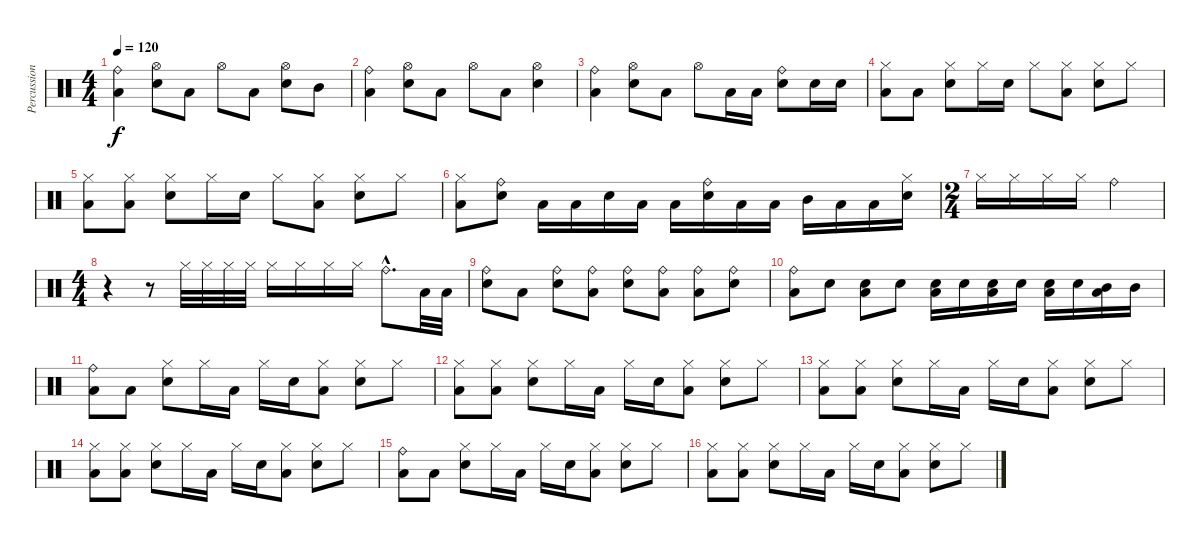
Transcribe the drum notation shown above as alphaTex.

\track ("Percussion" "Percussion") {instrument percussion}
\staff {score}
\articulation defaults
\ts (4 4)
\tempo 120
\clef neutral
\ks c
("Ride (bell)" "Low Floor Tom (hit)").4{dy f} ("Hi-Hat (open)" "Snare (hit) 2").8 "Low Floor Tom (hit)".8 "Hi-Hat (open)".8 "Low Floor Tom (hit)".8 ("Hi-Hat (open)" "Snare (hit) 2").8 "Mid Tom (hit)".8 |
("Ride (bell)" "Low Floor Tom (hit)").4 ("Hi-Hat (open)" "Snare (hit) 2").8 "Low Floor Tom (hit)".8 "Hi-Hat (open)".8 "Low Floor Tom (hit)".8 ("Hi-Hat (open)" "Snare (hit) 2").4 |
("Ride (bell)" "Low Floor Tom (hit)").4 ("Hi-Hat (open)" "Snare (hit) 2").8 "Low Floor Tom (hit)".8 "Hi-Hat (open)".8 "Low Floor Tom (hit)".16 "Low Floor Tom (hit)".16 ("Ride (bell)" "Snare (hit) 2").8 "Snare (hit) 2".16 "Snare (hit) 2".16 |
("Hi-Hat (closed)" "Low Floor Tom (hit)").8 "Low Floor Tom (hit)".8 ("Hi-Hat (closed)" "Snare (hit) 2").8 "Hi-Hat (closed)".16 "Snare (hit) 2".16 "Hi-Hat (closed)".8 ("Hi-Hat (closed)" "Low Floor Tom (hit)").8 ("Hi-Hat (closed)" "Snare (hit) 2").8 "Hi-Hat (closed)".8 |
("Hi-Hat (closed)" "Low Floor Tom (hit)").8 ("Hi-Hat (closed)" "Low Floor Tom (hit)").8 ("Hi-Hat (closed)" "Snare (hit) 2").8 "Hi-Hat (closed)".16 "Snare (hit) 2".16 "Hi-Hat (closed)".8 ("Hi-Hat (closed)" "Low Floor Tom (hit)").8 ("Hi-Hat (closed)" "Snare (hit) 2").8 "Hi-Hat (closed)".8 |
("Hi-Hat (closed)" "Low Floor Tom (hit)").8 ("Ride (bell)" "Snare (hit) 2").8 "Low Floor Tom (hit)".16 "Low Tom (hit)".16 "Snare (hit) 2".16 "Low Tom (hit)".16 "Low Floor Tom (hit)".16 ("Ride (bell)" "Snare (hit) 2").16 "Low Floor Tom (hit)".16 "Low Tom (hit)".16 "Mid Tom (hit)".16 "Low Tom (hit)".16 "Low Floor Tom (hit)".16 ("Hi-Hat (closed)" "Snare (hit) 2").16 |
\ts (2 4)
"Hi-Hat (closed)".16 "Hi-Hat (closed)".16 "Hi-Hat (closed)".16 "Hi-Hat (closed)".16 "Ride (bell)".4 |
\ts (4 4)
r.4 r.8 "Hi-Hat (closed)".32 "Hi-Hat (closed)".32 "Hi-Hat (closed)".32 "Hi-Hat (closed)".32 "Hi-Hat (closed)".16 "Hi-Hat (closed)".16 "Hi-Hat (closed)".16 "Hi-Hat (closed)".16 "Ride (bell)"{hac}.8{d} "Low Floor Tom (hit)".32 "Low Floor Tom (hit)".32 |
("Ride (bell)" "Snare (hit) 2").8 "Low Floor Tom (hit)".8 ("Ride (bell)" "Snare (hit) 2").8 ("Ride (bell)" "Low Floor Tom (hit)").8 ("Ride (bell)" "Snare (hit) 2").8 ("Ride (bell)" "Low Floor Tom (hit)").8 ("Ride (bell)" "Low Floor Tom (hit)").8 ("Ride (bell)" "Snare (hit) 2").8 |
("Ride (bell)" "Low Floor Tom (hit)").8 "Snare (hit) 2".8 ("Snare (hit) 2" "Low Floor Tom (hit)").8 "Snare (hit) 2".8 ("Snare (hit) 2" "Low Floor Tom (hit)").16 "Snare (hit) 2".16 ("Snare (hit) 2" "Low Floor Tom (hit)").16 "Snare (hit) 2".16 ("Snare (hit) 2" "Low Floor Tom (hit)").16 "Snare (hit) 2".16 ("Mid Tom (hit)" "Low Floor Tom (hit)").16 "Mid Tom (hit)".16 |
("Ride (bell)" "Low Floor Tom (hit)").8 "Low Floor Tom (hit)".8 ("Hi-Hat (closed)" "Snare (hit) 2").8 "Hi-Hat (closed)".16 "Low Floor Tom (hit)".16 "Hi-Hat (closed)".16 "Snare (hit) 2".16 ("Hi-Hat (closed)" "Low Floor Tom (hit)").8 ("Hi-Hat (closed)" "Snare (hit) 2").8 "Hi-Hat (closed)".8 |
("Hi-Hat (closed)" "Low Floor Tom (hit)").8 ("Hi-Hat (closed)" "Low Floor Tom (hit)").8 ("Hi-Hat (closed)" "Snare (hit) 2").8 "Hi-Hat (closed)".16 "Low Floor Tom (hit)".16 "Hi-Hat (closed)".16 "Snare (hit) 2".16 ("Hi-Hat (closed)" "Low Floor Tom (hit)").8 ("Hi-Hat (closed)" "Snare (hit) 2").8 "Hi-Hat (closed)".8 |
("Hi-Hat (closed)" "Low Floor Tom (hit)").8 ("Hi-Hat (closed)" "Low Floor Tom (hit)").8 ("Hi-Hat (closed)" "Snare (hit) 2").8 "Hi-Hat (closed)".16 "Low Floor Tom (hit)".16 "Hi-Hat (closed)".16 "Snare (hit) 2".16 ("Hi-Hat (closed)" "Low Floor Tom (hit)").8 ("Hi-Hat (closed)" "Snare (hit) 2").8 "Hi-Hat (closed)".8 |
("Hi-Hat (closed)" "Low Floor Tom (hit)").8 ("Hi-Hat (closed)" "Low Floor Tom (hit)").8 ("Hi-Hat (closed)" "Snare (hit) 2").8 "Hi-Hat (closed)".16 "Low Floor Tom (hit)".16 "Hi-Hat (closed)".16 "Snare (hit) 2".16 ("Hi-Hat (closed)" "Low Floor Tom (hit)").8 ("Hi-Hat (closed)" "Snare (hit) 2").8 "Hi-Hat (closed)".8 |
("Ride (bell)" "Low Floor Tom (hit)").8 "Low Floor Tom (hit)".8 ("Hi-Hat (closed)" "Snare (hit) 2").8 "Hi-Hat (closed)".16 "Low Floor Tom (hit)".16 "Hi-Hat (closed)".16 "Snare (hit) 2".16 ("Hi-Hat (closed)" "Low Floor Tom (hit)").8 ("Hi-Hat (closed)" "Snare (hit) 2").8 "Hi-Hat (closed)".8 |
("Hi-Hat (closed)" "Low Floor Tom (hit)").8 ("Hi-Hat (closed)" "Low Floor Tom (hit)").8 ("Hi-Hat (closed)" "Snare (hit) 2").8 "Hi-Hat (closed)".16 "Low Floor Tom (hit)".16 "Hi-Hat (closed)".16 "Snare (hit) 2".16 ("Hi-Hat (closed)" "Low Floor Tom (hit)").8 ("Hi-Hat (closed)" "Snare (hit) 2").8 "Hi-Hat (closed)".8
